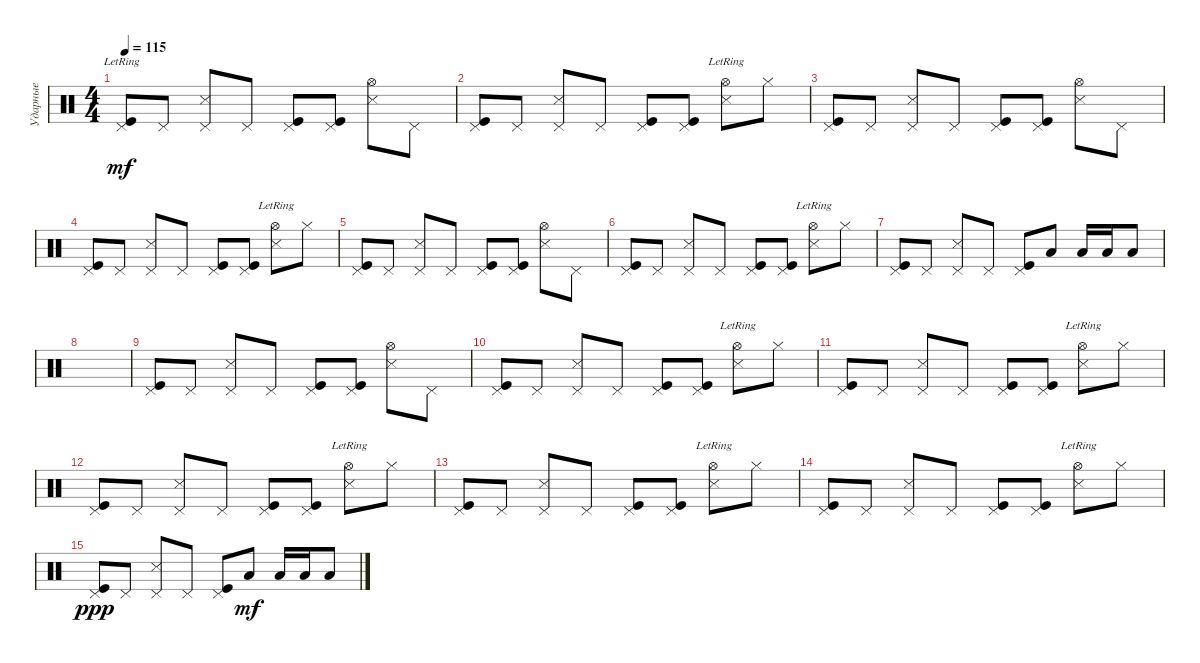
\track ("Ударные" "Ударные") {instrument percussion}
\staff
\articulation defaults
\ts (4 4)
\tempo 115
\clef neutral
\ks c
("Pedal Hi-Hat (hit)"{lr} "Kick (hit)").8{dy mf} "Pedal Hi-Hat (hit)".8 ("Pedal Hi-Hat (hit)" "Snare (side stick) 3").8 "Pedal Hi-Hat (hit)".8 ("Pedal Hi-Hat (hit)" "Kick (hit)").8 ("Pedal Hi-Hat (hit)" "Kick (hit)").8 ("Hi-Hat (open)" "Snare (side stick) 3").8 "Pedal Hi-Hat (hit)".8 |
("Pedal Hi-Hat (hit)" "Kick (hit)").8 "Pedal Hi-Hat (hit)".8 ("Pedal Hi-Hat (hit)" "Snare (side stick) 3").8 "Pedal Hi-Hat (hit)".8 ("Pedal Hi-Hat (hit)" "Kick (hit)").8 ("Pedal Hi-Hat (hit)" "Kick (hit)").8 ("Hi-Hat (open)"{lr} "Snare (side stick) 3").8 "Hi-Hat (closed)".8 |
("Pedal Hi-Hat (hit)" "Kick (hit)").8 "Pedal Hi-Hat (hit)".8 ("Pedal Hi-Hat (hit)" "Snare (side stick) 3").8 "Pedal Hi-Hat (hit)".8 ("Pedal Hi-Hat (hit)" "Kick (hit)").8 ("Pedal Hi-Hat (hit)" "Kick (hit)").8 ("Hi-Hat (open)" "Snare (side stick) 3").8 "Pedal Hi-Hat (hit)".8 |
("Pedal Hi-Hat (hit)" "Kick (hit)").8 "Pedal Hi-Hat (hit)".8 ("Pedal Hi-Hat (hit)" "Snare (side stick) 3").8 "Pedal Hi-Hat (hit)".8 ("Pedal Hi-Hat (hit)" "Kick (hit)").8 ("Pedal Hi-Hat (hit)" "Kick (hit)").8 ("Hi-Hat (open)"{lr} "Snare (side stick) 3").8 "Hi-Hat (closed)".8 |
("Pedal Hi-Hat (hit)" "Kick (hit)").8 "Pedal Hi-Hat (hit)".8 ("Pedal Hi-Hat (hit)" "Snare (side stick) 3").8 "Pedal Hi-Hat (hit)".8 ("Pedal Hi-Hat (hit)" "Kick (hit)").8 ("Pedal Hi-Hat (hit)" "Kick (hit)").8 ("Hi-Hat (open)" "Snare (side stick) 3").8 "Pedal Hi-Hat (hit)".8 |
("Pedal Hi-Hat (hit)" "Kick (hit)").8 "Pedal Hi-Hat (hit)".8 ("Pedal Hi-Hat (hit)" "Snare (side stick) 3").8 "Pedal Hi-Hat (hit)".8 ("Pedal Hi-Hat (hit)" "Kick (hit)").8 ("Pedal Hi-Hat (hit)" "Kick (hit)").8 ("Hi-Hat (open)"{lr} "Snare (side stick) 3").8 "Hi-Hat (closed)".8 |
("Pedal Hi-Hat (hit)" "Kick (hit)").8 "Pedal Hi-Hat (hit)".8 ("Pedal Hi-Hat (hit)" "Snare (side stick) 3").8 "Pedal Hi-Hat (hit)".8 ("Pedal Hi-Hat (hit)" "Kick (hit)").8 "Low Tom (hit)".8 "Low Tom (hit)".16 "Low Tom (hit)".16 "Low Tom (hit)".8 |
|
("Pedal Hi-Hat (hit)" "Kick (hit)").8 "Pedal Hi-Hat (hit)".8 ("Pedal Hi-Hat (hit)" "Snare (side stick) 3").8 "Pedal Hi-Hat (hit)".8 ("Pedal Hi-Hat (hit)" "Kick (hit)").8 ("Pedal Hi-Hat (hit)" "Kick (hit)").8 ("Hi-Hat (open)" "Snare (side stick) 3").8 "Pedal Hi-Hat (hit)".8 |
("Pedal Hi-Hat (hit)" "Kick (hit)").8 "Pedal Hi-Hat (hit)".8 ("Pedal Hi-Hat (hit)" "Snare (side stick) 3").8 "Pedal Hi-Hat (hit)".8 ("Pedal Hi-Hat (hit)" "Kick (hit)").8 ("Pedal Hi-Hat (hit)" "Kick (hit)").8 ("Hi-Hat (open)"{lr} "Snare (side stick) 3").8 "Hi-Hat (closed)".8 |
("Pedal Hi-Hat (hit)" "Kick (hit)").8 "Pedal Hi-Hat (hit)".8 ("Pedal Hi-Hat (hit)" "Snare (side stick) 3").8 "Pedal Hi-Hat (hit)".8 ("Pedal Hi-Hat (hit)" "Kick (hit)").8 ("Pedal Hi-Hat (hit)" "Kick (hit)").8 ("Hi-Hat (open)"{lr} "Snare (side stick) 3").8 "Hi-Hat (closed)".8 |
("Pedal Hi-Hat (hit)" "Kick (hit)").8 "Pedal Hi-Hat (hit)".8 ("Pedal Hi-Hat (hit)" "Snare (side stick) 3").8 "Pedal Hi-Hat (hit)".8 ("Pedal Hi-Hat (hit)" "Kick (hit)").8 ("Pedal Hi-Hat (hit)" "Kick (hit)").8 ("Hi-Hat (open)"{lr} "Snare (side stick) 3").8 "Hi-Hat (closed)".8 |
("Pedal Hi-Hat (hit)" "Kick (hit)").8 "Pedal Hi-Hat (hit)".8 ("Pedal Hi-Hat (hit)" "Snare (side stick) 3").8 "Pedal Hi-Hat (hit)".8 ("Pedal Hi-Hat (hit)" "Kick (hit)").8 ("Pedal Hi-Hat (hit)" "Kick (hit)").8 ("Hi-Hat (open)"{lr} "Snare (side stick) 3").8 "Hi-Hat (closed)".8 |
("Pedal Hi-Hat (hit)" "Kick (hit)").8 "Pedal Hi-Hat (hit)".8 ("Pedal Hi-Hat (hit)" "Snare (side stick) 3").8 "Pedal Hi-Hat (hit)".8 ("Pedal Hi-Hat (hit)" "Kick (hit)").8 ("Pedal Hi-Hat (hit)" "Kick (hit)").8 ("Hi-Hat (open)"{lr} "Snare (side stick) 3").8 "Hi-Hat (closed)".8 |
("Pedal Hi-Hat (hit)" "Kick (hit)").8{dy ppp} "Pedal Hi-Hat (hit)".8 ("Pedal Hi-Hat (hit)" "Snare (side stick) 3").8 "Pedal Hi-Hat (hit)".8 ("Pedal Hi-Hat (hit)" "Kick (hit)").8 "Low Tom (hit)".8{dy mf} "Low Tom (hit)".16 "Low Tom (hit)".16 "Low Tom (hit)".8
